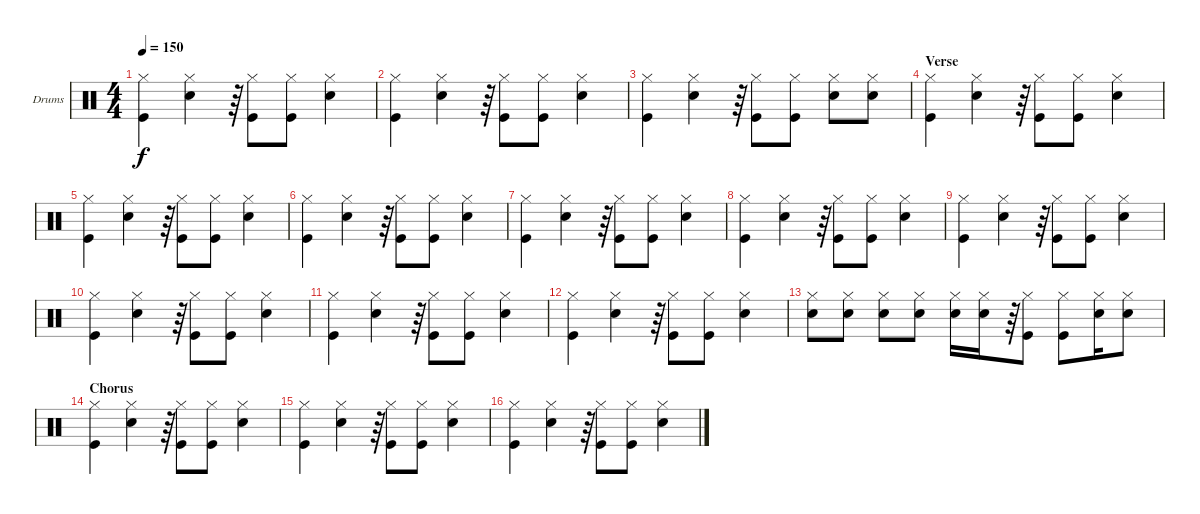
\defaultSystemsLayout 4
\bracketExtendMode groupsimilarinstruments
\firstSystemTrackNameOrientation horizontal
\otherSystemsTrackNameOrientation horizontal
\track ("Drum" "Drums") {instrument percussion}
\staff {score}
\articulation defaults
\ts (4 4)
\tempo 150
\clef neutral
\ks c
("Hi-Hat (closed)" "Kick (hit)").4{dy f} ("Hi-Hat (closed)" "Snare (hit) 2").4 r.64 ("Hi-Hat (closed)" "Kick (hit)").8 ("Hi-Hat (closed)" "Kick (hit)").8 ("Hi-Hat (closed)" "Snare (hit) 2").4 |
("Hi-Hat (closed)" "Kick (hit)").4 ("Hi-Hat (closed)" "Snare (hit) 2").4 r.64 ("Hi-Hat (closed)" "Kick (hit)").8 ("Hi-Hat (closed)" "Kick (hit)").8 ("Hi-Hat (closed)" "Snare (hit) 2").4 |
("Hi-Hat (closed)" "Kick (hit)").4 ("Hi-Hat (closed)" "Snare (hit) 2").4 r.64 ("Hi-Hat (closed)" "Kick (hit)").8 ("Hi-Hat (closed)" "Kick (hit)").8 ("Hi-Hat (closed)" "Snare (hit) 2").8 ("Hi-Hat (closed)" "Snare (hit) 2").8 |
\section ("" "Verse")
("Hi-Hat (closed)" "Kick (hit)").4 ("Hi-Hat (closed)" "Snare (hit) 2").4 r.64 ("Hi-Hat (closed)" "Kick (hit)").8 ("Hi-Hat (closed)" "Kick (hit)").8 ("Hi-Hat (closed)" "Snare (hit) 2").4 |
("Hi-Hat (closed)" "Kick (hit)").4 ("Hi-Hat (closed)" "Snare (hit) 2").4 r.64 ("Hi-Hat (closed)" "Kick (hit)").8 ("Hi-Hat (closed)" "Kick (hit)").8 ("Hi-Hat (closed)" "Snare (hit) 2").4 |
("Hi-Hat (closed)" "Kick (hit)").4 ("Hi-Hat (closed)" "Snare (hit) 2").4 r.64 ("Hi-Hat (closed)" "Kick (hit)").8 ("Hi-Hat (closed)" "Kick (hit)").8 ("Hi-Hat (closed)" "Snare (hit) 2").4 |
("Hi-Hat (closed)" "Kick (hit)").4 ("Hi-Hat (closed)" "Snare (hit) 2").4 r.64 ("Hi-Hat (closed)" "Kick (hit)").8 ("Hi-Hat (closed)" "Kick (hit)").8 ("Hi-Hat (closed)" "Snare (hit) 2").4 |
("Hi-Hat (closed)" "Kick (hit)").4 ("Hi-Hat (closed)" "Snare (hit) 2").4 r.64 ("Hi-Hat (closed)" "Kick (hit)").8 ("Hi-Hat (closed)" "Kick (hit)").8 ("Hi-Hat (closed)" "Snare (hit) 2").4 |
("Hi-Hat (closed)" "Kick (hit)").4 ("Hi-Hat (closed)" "Snare (hit) 2").4 r.64 ("Hi-Hat (closed)" "Kick (hit)").8 ("Hi-Hat (closed)" "Kick (hit)").8 ("Hi-Hat (closed)" "Snare (hit) 2").4 |
("Hi-Hat (closed)" "Kick (hit)").4 ("Hi-Hat (closed)" "Snare (hit) 2").4 r.64 ("Hi-Hat (closed)" "Kick (hit)").8 ("Hi-Hat (closed)" "Kick (hit)").8 ("Hi-Hat (closed)" "Snare (hit) 2").4 |
("Hi-Hat (closed)" "Kick (hit)").4 ("Hi-Hat (closed)" "Snare (hit) 2").4 r.64 ("Hi-Hat (closed)" "Kick (hit)").8 ("Hi-Hat (closed)" "Kick (hit)").8 ("Hi-Hat (closed)" "Snare (hit) 2").4 |
("Hi-Hat (closed)" "Kick (hit)").4 ("Hi-Hat (closed)" "Snare (hit) 2").4 r.64 ("Hi-Hat (closed)" "Kick (hit)").8 ("Hi-Hat (closed)" "Kick (hit)").8 ("Hi-Hat (closed)" "Snare (hit) 2").4 |
("Hi-Hat (closed)" "Snare (hit) 2").8 ("Hi-Hat (closed)" "Snare (hit) 2").8 ("Hi-Hat (closed)" "Snare (hit) 2").8 ("Hi-Hat (closed)" "Snare (hit) 2").8 ("Hi-Hat (closed)" "Snare (hit) 2").16 ("Hi-Hat (closed)" "Snare (hit) 2").16 r.64 ("Hi-Hat (closed)" "Kick (hit)").8 ("Hi-Hat (closed)" "Kick (hit)").8 ("Hi-Hat (closed)" "Snare (hit) 2").16 ("Hi-Hat (closed)" "Snare (hit) 2").8 |
\section ("" "Chorus")
("Hi-Hat (closed)" "Kick (hit)").4 ("Hi-Hat (closed)" "Snare (hit) 2").4 r.64 ("Hi-Hat (closed)" "Kick (hit)").8 ("Hi-Hat (closed)" "Kick (hit)").8 ("Hi-Hat (closed)" "Snare (hit) 2").4 |
("Hi-Hat (closed)" "Kick (hit)").4 ("Hi-Hat (closed)" "Snare (hit) 2").4 r.64 ("Hi-Hat (closed)" "Kick (hit)").8 ("Hi-Hat (closed)" "Kick (hit)").8 ("Hi-Hat (closed)" "Snare (hit) 2").4 |
("Hi-Hat (closed)" "Kick (hit)").4 ("Hi-Hat (closed)" "Snare (hit) 2").4 r.64 ("Hi-Hat (closed)" "Kick (hit)").8 ("Hi-Hat (closed)" "Kick (hit)").8 ("Hi-Hat (closed)" "Snare (hit) 2").4
